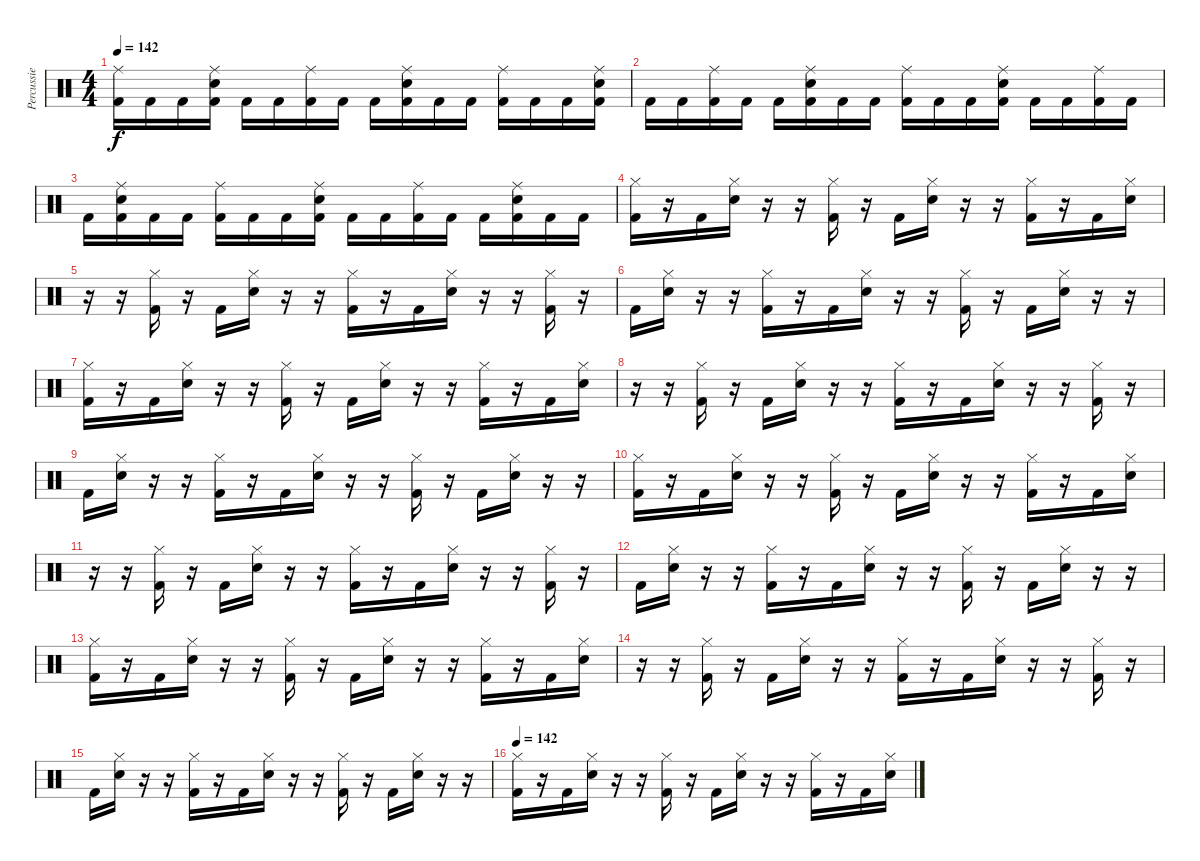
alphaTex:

\track ("Percussie" "Percussie") {instrument percussion}
\staff {score}
\articulation defaults
\ts (4 4)
\tempo 142
\clef neutral
\ks c
("Ride (middle)" "Kick (hit) 2").16{dy f} "Kick (hit) 2".16 "Kick (hit) 2".16 ("Ride (middle)" "Snare (hit) 2" "Kick (hit) 2").16 "Kick (hit) 2".16 "Kick (hit) 2".16 ("Ride (middle)" "Kick (hit) 2").16 "Kick (hit) 2".16 "Kick (hit) 2".16 ("Ride (middle)" "Snare (hit) 2" "Kick (hit) 2").16 "Kick (hit) 2".16 "Kick (hit) 2".16 ("Ride (middle)" "Kick (hit) 2").16 "Kick (hit) 2".16 "Kick (hit) 2".16 ("Ride (middle)" "Snare (hit) 2" "Kick (hit) 2").16 |
"Kick (hit) 2".16 "Kick (hit) 2".16 ("Ride (middle)" "Kick (hit) 2").16 "Kick (hit) 2".16 "Kick (hit) 2".16 ("Ride (middle)" "Snare (hit) 2" "Kick (hit) 2").16 "Kick (hit) 2".16 "Kick (hit) 2".16 ("Ride (middle)" "Kick (hit) 2").16 "Kick (hit) 2".16 "Kick (hit) 2".16 ("Ride (middle)" "Snare (hit) 2" "Kick (hit) 2").16 "Kick (hit) 2".16 "Kick (hit) 2".16 ("Ride (middle)" "Kick (hit) 2").16 "Kick (hit) 2".16 |
"Kick (hit) 2".16 ("Ride (middle)" "Snare (hit) 2" "Kick (hit) 2").16 "Kick (hit) 2".16 "Kick (hit) 2".16 ("Ride (middle)" "Kick (hit) 2").16 "Kick (hit) 2".16 "Kick (hit) 2".16 ("Ride (middle)" "Snare (hit) 2" "Kick (hit) 2").16 "Kick (hit) 2".16 "Kick (hit) 2".16 ("Ride (middle)" "Kick (hit) 2").16 "Kick (hit) 2".16 "Kick (hit) 2".16 ("Ride (middle)" "Snare (hit) 2" "Kick (hit) 2").16 "Kick (hit) 2".16 "Kick (hit) 2".16 |
("Hi-Hat (closed)" "Kick (hit) 2").16 r.16 "Kick (hit) 2".16 ("Hi-Hat (closed)" "Snare (hit) 2").16 r.16 r.16 ("Hi-Hat (closed)" "Kick (hit) 2").16 r.16 "Kick (hit) 2".16 ("Hi-Hat (closed)" "Snare (hit) 2").16 r.16 r.16 ("Hi-Hat (closed)" "Kick (hit) 2").16 r.16 "Kick (hit) 2".16 ("Hi-Hat (closed)" "Snare (hit) 2").16 |
r.16 r.16 ("Hi-Hat (closed)" "Kick (hit) 2").16 r.16 "Kick (hit) 2".16 ("Hi-Hat (closed)" "Snare (hit) 2").16 r.16 r.16 ("Hi-Hat (closed)" "Kick (hit) 2").16 r.16 "Kick (hit) 2".16 ("Hi-Hat (closed)" "Snare (hit) 2").16 r.16 r.16 ("Hi-Hat (closed)" "Kick (hit) 2").16 r.16 |
"Kick (hit) 2".16 ("Hi-Hat (closed)" "Snare (hit) 2").16 r.16 r.16 ("Hi-Hat (closed)" "Kick (hit) 2").16 r.16 "Kick (hit) 2".16 ("Hi-Hat (closed)" "Snare (hit) 2").16 r.16 r.16 ("Hi-Hat (closed)" "Kick (hit) 2").16 r.16 "Kick (hit) 2".16 ("Hi-Hat (closed)" "Snare (hit) 2").16 r.16 r.16 |
("Hi-Hat (closed)" "Kick (hit) 2").16 r.16 "Kick (hit) 2".16 ("Hi-Hat (closed)" "Snare (hit) 2").16 r.16 r.16 ("Hi-Hat (closed)" "Kick (hit) 2").16 r.16 "Kick (hit) 2".16 ("Hi-Hat (closed)" "Snare (hit) 2").16 r.16 r.16 ("Hi-Hat (closed)" "Kick (hit) 2").16 r.16 "Kick (hit) 2".16 ("Hi-Hat (closed)" "Snare (hit) 2").16 |
r.16 r.16 ("Hi-Hat (closed)" "Kick (hit) 2").16 r.16 "Kick (hit) 2".16 ("Hi-Hat (closed)" "Snare (hit) 2").16 r.16 r.16 ("Hi-Hat (closed)" "Kick (hit) 2").16 r.16 "Kick (hit) 2".16 ("Hi-Hat (closed)" "Snare (hit) 2").16 r.16 r.16 ("Hi-Hat (closed)" "Kick (hit) 2").16 r.16 |
"Kick (hit) 2".16 ("Hi-Hat (closed)" "Snare (hit) 2").16 r.16 r.16 ("Hi-Hat (closed)" "Kick (hit) 2").16 r.16 "Kick (hit) 2".16 ("Hi-Hat (closed)" "Snare (hit) 2").16 r.16 r.16 ("Hi-Hat (closed)" "Kick (hit) 2").16 r.16 "Kick (hit) 2".16 ("Hi-Hat (closed)" "Snare (hit) 2").16 r.16 r.16 |
("Hi-Hat (closed)" "Kick (hit) 2").16 r.16 "Kick (hit) 2".16 ("Hi-Hat (closed)" "Snare (hit) 2").16 r.16 r.16 ("Hi-Hat (closed)" "Kick (hit) 2").16 r.16 "Kick (hit) 2".16 ("Hi-Hat (closed)" "Snare (hit) 2").16 r.16 r.16 ("Hi-Hat (closed)" "Kick (hit) 2").16 r.16 "Kick (hit) 2".16 ("Hi-Hat (closed)" "Snare (hit) 2").16 |
r.16 r.16 ("Hi-Hat (closed)" "Kick (hit) 2").16 r.16 "Kick (hit) 2".16 ("Hi-Hat (closed)" "Snare (hit) 2").16 r.16 r.16 ("Hi-Hat (closed)" "Kick (hit) 2").16 r.16 "Kick (hit) 2".16 ("Hi-Hat (closed)" "Snare (hit) 2").16 r.16 r.16 ("Hi-Hat (closed)" "Kick (hit) 2").16 r.16 |
"Kick (hit) 2".16 ("Hi-Hat (closed)" "Snare (hit) 2").16 r.16 r.16 ("Hi-Hat (closed)" "Kick (hit) 2").16 r.16 "Kick (hit) 2".16 ("Hi-Hat (closed)" "Snare (hit) 2").16 r.16 r.16 ("Hi-Hat (closed)" "Kick (hit) 2").16 r.16 "Kick (hit) 2".16 ("Hi-Hat (closed)" "Snare (hit) 2").16 r.16 r.16 |
("Hi-Hat (closed)" "Kick (hit) 2").16 r.16 "Kick (hit) 2".16 ("Hi-Hat (closed)" "Snare (hit) 2").16 r.16 r.16 ("Hi-Hat (closed)" "Kick (hit) 2").16 r.16 "Kick (hit) 2".16 ("Hi-Hat (closed)" "Snare (hit) 2").16 r.16 r.16 ("Hi-Hat (closed)" "Kick (hit) 2").16 r.16 "Kick (hit) 2".16 ("Hi-Hat (closed)" "Snare (hit) 2").16 |
r.16 r.16 ("Hi-Hat (closed)" "Kick (hit) 2").16 r.16 "Kick (hit) 2".16 ("Hi-Hat (closed)" "Snare (hit) 2").16 r.16 r.16 ("Hi-Hat (closed)" "Kick (hit) 2").16 r.16 "Kick (hit) 2".16 ("Hi-Hat (closed)" "Snare (hit) 2").16 r.16 r.16 ("Hi-Hat (closed)" "Kick (hit) 2").16 r.16 |
"Kick (hit) 2".16 ("Hi-Hat (closed)" "Snare (hit) 2").16 r.16 r.16 ("Hi-Hat (closed)" "Kick (hit) 2").16 r.16 "Kick (hit) 2".16 ("Hi-Hat (closed)" "Snare (hit) 2").16 r.16 r.16 ("Hi-Hat (closed)" "Kick (hit) 2").16 r.16 "Kick (hit) 2".16 ("Hi-Hat (closed)" "Snare (hit) 2").16 r.16 r.16 |
\tempo 142
("Hi-Hat (closed)" "Kick (hit) 2").16 r.16 "Kick (hit) 2".16 ("Hi-Hat (closed)" "Snare (hit) 2").16 r.16 r.16 ("Hi-Hat (closed)" "Kick (hit) 2").16 r.16 "Kick (hit) 2".16 ("Hi-Hat (closed)" "Snare (hit) 2").16 r.16 r.16 ("Hi-Hat (closed)" "Kick (hit) 2").16 r.16 "Kick (hit) 2".16 ("Hi-Hat (closed)" "Snare (hit) 2").16
